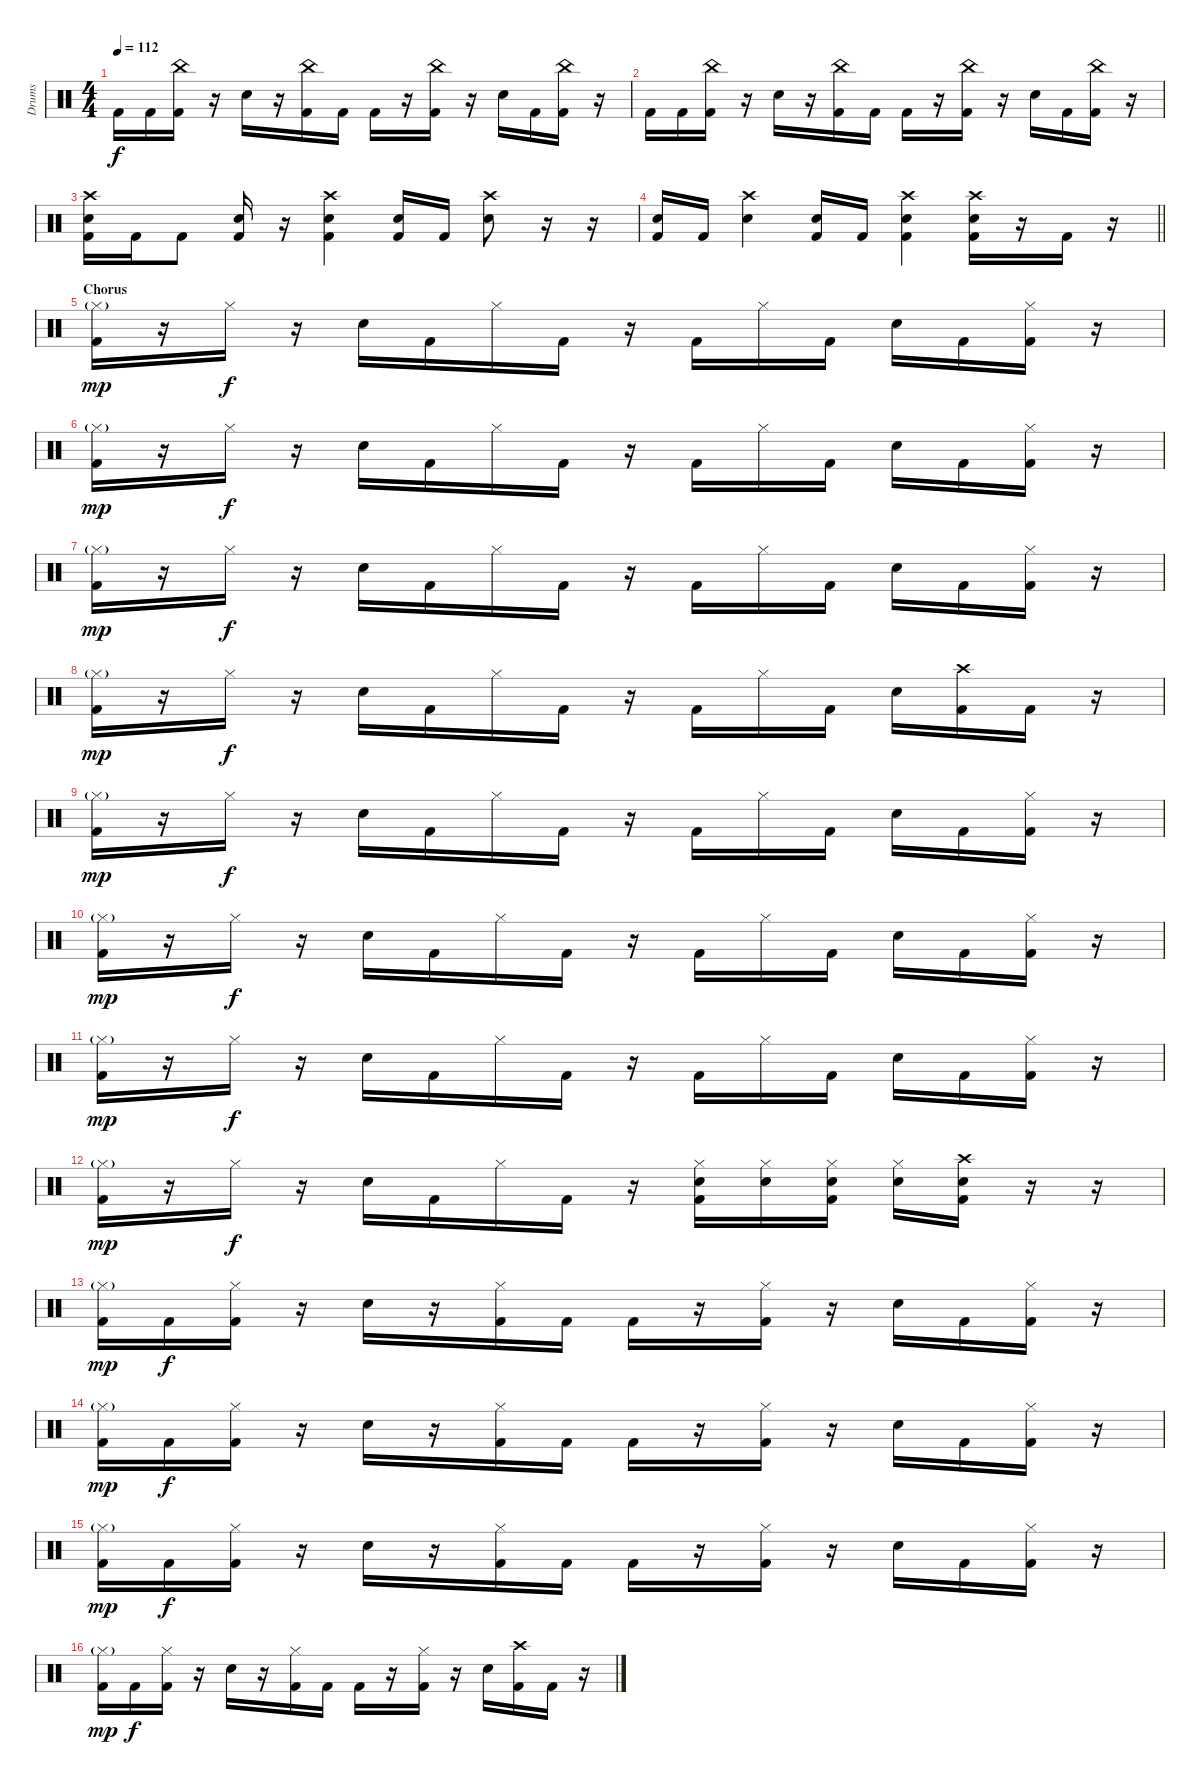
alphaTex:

\track ("Drums" "Drums") {instrument percussion}
\staff {score}
\articulation defaults
\ts (4 4)
\tempo 112
\clef neutral
\ks c "Kick (hit) 2".16{dy f} "Kick (hit) 2".16
("China (hit)" "Kick (hit) 2").16 r.16 "Electric Snare (hit)".16 r.16 ("China (hit)" "Kick (hit) 2").16 "Kick (hit) 2".16 "Kick (hit) 2".16 r.16 ("China (hit)" "Kick (hit) 2").16 r.16 "Electric Snare (hit)".16 "Kick (hit) 2".16 ("China (hit)" "Kick (hit) 2").16 r.16 |
"Kick (hit) 2".16 "Kick (hit) 2".16 ("China (hit)" "Kick (hit) 2").16 r.16 "Electric Snare (hit)".16 r.16 ("China (hit)" "Kick (hit) 2").16 "Kick (hit) 2".16 "Kick (hit) 2".16 r.16 ("China (hit)" "Kick (hit) 2").16 r.16 "Electric Snare (hit)".16 "Kick (hit) 2".16 ("China (hit)" "Kick (hit) 2").16 r.16 |
("Crash high (hit)" "Electric Snare (hit)" "Kick (hit) 2").16 "Kick (hit) 2".16 "Kick (hit) 2".8 ("Electric Snare (hit)" "Kick (hit) 2").16 r.16 ("Crash high (hit)" "Electric Snare (hit)" "Kick (hit) 2").4 ("Electric Snare (hit)" "Kick (hit) 2").16 "Kick (hit) 2".16 ("Crash high (hit)" "Electric Snare (hit)").8 r.16 r.16 |
\barLineRight lightlight
("Electric Snare (hit)" "Kick (hit) 2").16 "Kick (hit) 2".16 ("Crash high (hit)" "Electric Snare (hit)").4 ("Electric Snare (hit)" "Kick (hit) 2").16 "Kick (hit) 2".16 ("Crash high (hit)" "Electric Snare (hit)" "Kick (hit) 2").4 ("Crash high (hit)" "Electric Snare (hit)" "Kick (hit) 2").16 r.16 "Kick (hit) 2".16 r.16 |
\section ("" "Chorus")
("Hi-Hat (closed)"{g} "Kick (hit) 2").16{dy mp} r.16 "Hi-Hat (closed)".16{dy f} r.16 "Electric Snare (hit)".16 "Kick (hit) 2".16 "Hi-Hat (closed)".16 "Kick (hit) 2".16 r.16 "Kick (hit) 2".16 "Hi-Hat (closed)".16 "Kick (hit) 2".16 "Electric Snare (hit)".16 "Kick (hit) 2".16 ("Hi-Hat (closed)" "Kick (hit) 2").16 r.16 |
("Hi-Hat (closed)"{g} "Kick (hit) 2").16{dy mp} r.16 "Hi-Hat (closed)".16{dy f} r.16 "Electric Snare (hit)".16 "Kick (hit) 2".16 "Hi-Hat (closed)".16 "Kick (hit) 2".16 r.16 "Kick (hit) 2".16 "Hi-Hat (closed)".16 "Kick (hit) 2".16 "Electric Snare (hit)".16 "Kick (hit) 2".16 ("Hi-Hat (closed)" "Kick (hit) 2").16 r.16 |
("Hi-Hat (closed)"{g} "Kick (hit) 2").16{dy mp} r.16 "Hi-Hat (closed)".16{dy f} r.16 "Electric Snare (hit)".16 "Kick (hit) 2".16 "Hi-Hat (closed)".16 "Kick (hit) 2".16 r.16 "Kick (hit) 2".16 "Hi-Hat (closed)".16 "Kick (hit) 2".16 "Electric Snare (hit)".16 "Kick (hit) 2".16 ("Hi-Hat (closed)" "Kick (hit) 2").16 r.16 |
("Hi-Hat (closed)"{g} "Kick (hit) 2").16{dy mp} r.16 "Hi-Hat (closed)".16{dy f} r.16 "Electric Snare (hit)".16 "Kick (hit) 2".16 "Hi-Hat (closed)".16 "Kick (hit) 2".16 r.16 "Kick (hit) 2".16 "Hi-Hat (closed)".16 "Kick (hit) 2".16 "Electric Snare (hit)".16 ("Crash high (hit)" "Kick (hit) 2").16 "Kick (hit) 2".16 r.16 |
("Hi-Hat (closed)"{g} "Kick (hit) 2").16{dy mp} r.16 "Hi-Hat (closed)".16{dy f} r.16 "Electric Snare (hit)".16 "Kick (hit) 2".16 "Hi-Hat (closed)".16 "Kick (hit) 2".16 r.16 "Kick (hit) 2".16 "Hi-Hat (closed)".16 "Kick (hit) 2".16 "Electric Snare (hit)".16 "Kick (hit) 2".16 ("Hi-Hat (closed)" "Kick (hit) 2").16 r.16 |
("Hi-Hat (closed)"{g} "Kick (hit) 2").16{dy mp} r.16 "Hi-Hat (closed)".16{dy f} r.16 "Electric Snare (hit)".16 "Kick (hit) 2".16 "Hi-Hat (closed)".16 "Kick (hit) 2".16 r.16 "Kick (hit) 2".16 "Hi-Hat (closed)".16 "Kick (hit) 2".16 "Electric Snare (hit)".16 "Kick (hit) 2".16 ("Hi-Hat (closed)" "Kick (hit) 2").16 r.16 |
("Hi-Hat (closed)"{g} "Kick (hit) 2").16{dy mp} r.16 "Hi-Hat (closed)".16{dy f} r.16 "Electric Snare (hit)".16 "Kick (hit) 2".16 "Hi-Hat (closed)".16 "Kick (hit) 2".16 r.16 "Kick (hit) 2".16 "Hi-Hat (closed)".16 "Kick (hit) 2".16 "Electric Snare (hit)".16 "Kick (hit) 2".16 ("Hi-Hat (closed)" "Kick (hit) 2").16 r.16 |
("Hi-Hat (closed)"{g} "Kick (hit) 2").16{dy mp} r.16 "Hi-Hat (closed)".16{dy f} r.16 "Electric Snare (hit)".16 "Kick (hit) 2".16 "Hi-Hat (closed)".16 "Kick (hit) 2".16 r.16 ("Hi-Hat (closed)" "Electric Snare (hit)" "Kick (hit) 2").16 ("Hi-Hat (closed)" "Electric Snare (hit)").16 ("Hi-Hat (closed)" "Electric Snare (hit)" "Kick (hit) 2").16 ("Hi-Hat (closed)" "Electric Snare (hit)").16 ("Crash high (hit)" "Electric Snare (hit)" "Kick (hit) 2").16 r.16 r.16 |
("Hi-Hat (closed)"{g} "Kick (hit) 2").16{dy mp} "Kick (hit) 2".16{dy f} ("Hi-Hat (closed)" "Kick (hit) 2").16 r.16 "Electric Snare (hit)".16 r.16 ("Hi-Hat (closed)" "Kick (hit) 2").16 "Kick (hit) 2".16 "Kick (hit) 2".16 r.16 ("Hi-Hat (closed)" "Kick (hit) 2").16 r.16 "Electric Snare (hit)".16 "Kick (hit) 2".16 ("Hi-Hat (closed)" "Kick (hit) 2").16 r.16 |
("Hi-Hat (closed)"{g} "Kick (hit) 2").16{dy mp} "Kick (hit) 2".16{dy f} ("Hi-Hat (closed)" "Kick (hit) 2").16 r.16 "Electric Snare (hit)".16 r.16 ("Hi-Hat (closed)" "Kick (hit) 2").16 "Kick (hit) 2".16 "Kick (hit) 2".16 r.16 ("Hi-Hat (closed)" "Kick (hit) 2").16 r.16 "Electric Snare (hit)".16 "Kick (hit) 2".16 ("Hi-Hat (closed)" "Kick (hit) 2").16 r.16 |
("Hi-Hat (closed)"{g} "Kick (hit) 2").16{dy mp} "Kick (hit) 2".16{dy f} ("Hi-Hat (closed)" "Kick (hit) 2").16 r.16 "Electric Snare (hit)".16 r.16 ("Hi-Hat (closed)" "Kick (hit) 2").16 "Kick (hit) 2".16 "Kick (hit) 2".16 r.16 ("Hi-Hat (closed)" "Kick (hit) 2").16 r.16 "Electric Snare (hit)".16 "Kick (hit) 2".16 ("Hi-Hat (closed)" "Kick (hit) 2").16 r.16 |
("Hi-Hat (closed)"{g} "Kick (hit) 2").16{dy mp} "Kick (hit) 2".16{dy f} ("Hi-Hat (closed)" "Kick (hit) 2").16 r.16 "Electric Snare (hit)".16 r.16 ("Hi-Hat (closed)" "Kick (hit) 2").16 "Kick (hit) 2".16 "Kick (hit) 2".16 r.16 ("Hi-Hat (closed)" "Kick (hit) 2").16 r.16 "Electric Snare (hit)".16 ("Crash high (hit)" "Kick (hit) 2").16 "Kick (hit) 2".16 r.16
